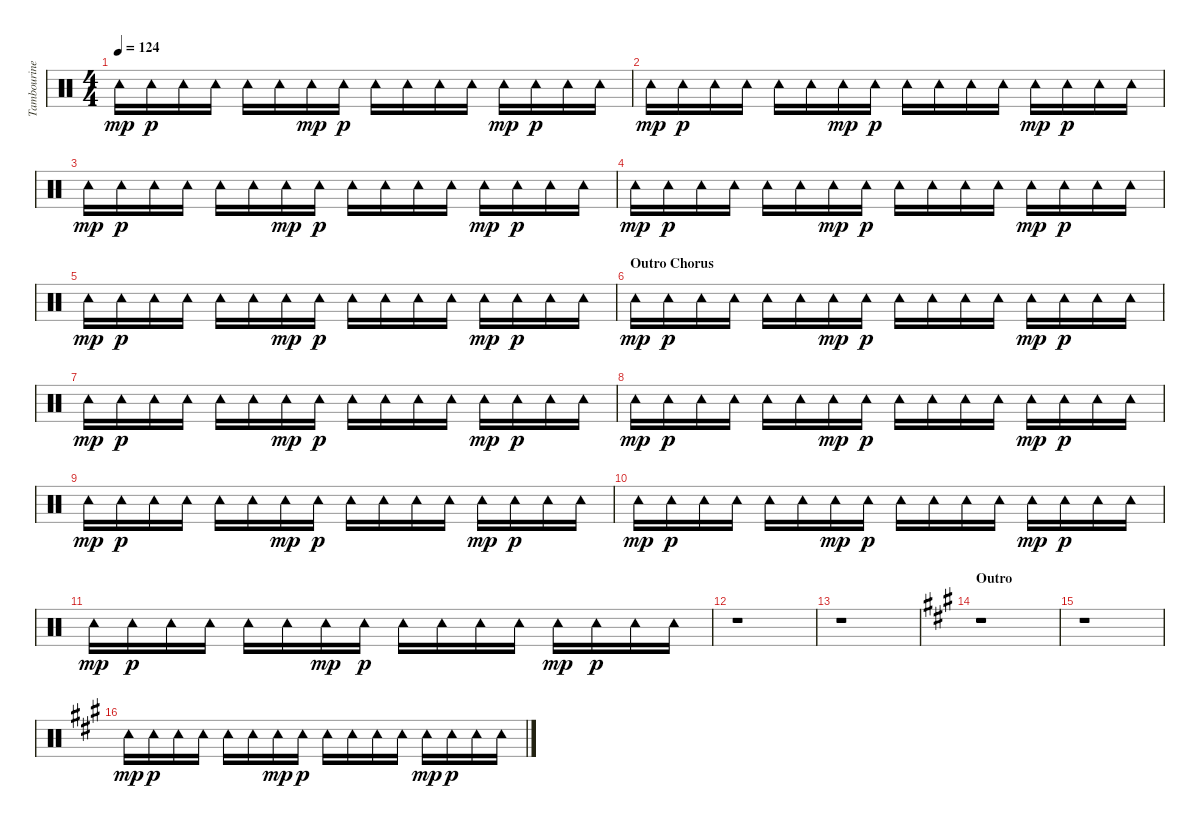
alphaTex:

\track ("Tambourine" "Tambourine") {instrument percussion}
\staff {score}
\articulation defaults
\ts (4 4)
\tempo 124
\clef neutral
\ks c "Tambourine (hit)".16{dy mp} "Tambourine (hit)".16{dy p} "Tambourine (hit)".16 "Tambourine (hit)".16 "Tambourine (hit)".16 "Tambourine (hit)".16 "Tambourine (hit)".16{dy mp} "Tambourine (hit)".16{dy p} "Tambourine (hit)".16 "Tambourine (hit)".16 "Tambourine (hit)".16 "Tambourine (hit)".16 "Tambourine (hit)".16{dy mp} "Tambourine (hit)".16{dy p} "Tambourine (hit)".16 "Tambourine (hit)".16
|
"Tambourine (hit)".16{dy mp} "Tambourine (hit)".16{dy p} "Tambourine (hit)".16 "Tambourine (hit)".16 "Tambourine (hit)".16 "Tambourine (hit)".16 "Tambourine (hit)".16{dy mp} "Tambourine (hit)".16{dy p} "Tambourine (hit)".16 "Tambourine (hit)".16 "Tambourine (hit)".16 "Tambourine (hit)".16 "Tambourine (hit)".16{dy mp} "Tambourine (hit)".16{dy p} "Tambourine (hit)".16 "Tambourine (hit)".16 |
"Tambourine (hit)".16{dy mp} "Tambourine (hit)".16{dy p} "Tambourine (hit)".16 "Tambourine (hit)".16 "Tambourine (hit)".16 "Tambourine (hit)".16 "Tambourine (hit)".16{dy mp} "Tambourine (hit)".16{dy p} "Tambourine (hit)".16 "Tambourine (hit)".16 "Tambourine (hit)".16 "Tambourine (hit)".16 "Tambourine (hit)".16{dy mp} "Tambourine (hit)".16{dy p} "Tambourine (hit)".16 "Tambourine (hit)".16 |
\ks aminor "Tambourine (hit)".16{dy mp} "Tambourine (hit)".16{dy p} "Tambourine (hit)".16 "Tambourine (hit)".16 "Tambourine (hit)".16 "Tambourine (hit)".16 "Tambourine (hit)".16{dy mp} "Tambourine (hit)".16{dy p} "Tambourine (hit)".16 "Tambourine (hit)".16 "Tambourine (hit)".16 "Tambourine (hit)".16 "Tambourine (hit)".16{dy mp} "Tambourine (hit)".16{dy p} "Tambourine (hit)".16 "Tambourine (hit)".16
|
\ks c "Tambourine (hit)".16{dy mp} "Tambourine (hit)".16{dy p} "Tambourine (hit)".16 "Tambourine (hit)".16 "Tambourine (hit)".16 "Tambourine (hit)".16 "Tambourine (hit)".16{dy mp} "Tambourine (hit)".16{dy p} "Tambourine (hit)".16 "Tambourine (hit)".16 "Tambourine (hit)".16 "Tambourine (hit)".16 "Tambourine (hit)".16{dy mp} "Tambourine (hit)".16{dy p} "Tambourine (hit)".16 "Tambourine (hit)".16
|
\section ("" "Outro Chorus")
"Tambourine (hit)".16{dy mp} "Tambourine (hit)".16{dy p} "Tambourine (hit)".16 "Tambourine (hit)".16 "Tambourine (hit)".16 "Tambourine (hit)".16 "Tambourine (hit)".16{dy mp} "Tambourine (hit)".16{dy p} "Tambourine (hit)".16 "Tambourine (hit)".16 "Tambourine (hit)".16 "Tambourine (hit)".16 "Tambourine (hit)".16{dy mp} "Tambourine (hit)".16{dy p} "Tambourine (hit)".16 "Tambourine (hit)".16 |
"Tambourine (hit)".16{dy mp} "Tambourine (hit)".16{dy p} "Tambourine (hit)".16 "Tambourine (hit)".16 "Tambourine (hit)".16 "Tambourine (hit)".16 "Tambourine (hit)".16{dy mp} "Tambourine (hit)".16{dy p} "Tambourine (hit)".16 "Tambourine (hit)".16 "Tambourine (hit)".16 "Tambourine (hit)".16 "Tambourine (hit)".16{dy mp} "Tambourine (hit)".16{dy p} "Tambourine (hit)".16 "Tambourine (hit)".16 |
"Tambourine (hit)".16{dy mp} "Tambourine (hit)".16{dy p} "Tambourine (hit)".16 "Tambourine (hit)".16 "Tambourine (hit)".16 "Tambourine (hit)".16 "Tambourine (hit)".16{dy mp} "Tambourine (hit)".16{dy p} "Tambourine (hit)".16 "Tambourine (hit)".16 "Tambourine (hit)".16 "Tambourine (hit)".16 "Tambourine (hit)".16{dy mp} "Tambourine (hit)".16{dy p} "Tambourine (hit)".16 "Tambourine (hit)".16 |
"Tambourine (hit)".16{dy mp} "Tambourine (hit)".16{dy p} "Tambourine (hit)".16 "Tambourine (hit)".16 "Tambourine (hit)".16 "Tambourine (hit)".16 "Tambourine (hit)".16{dy mp} "Tambourine (hit)".16{dy p} "Tambourine (hit)".16 "Tambourine (hit)".16 "Tambourine (hit)".16 "Tambourine (hit)".16 "Tambourine (hit)".16{dy mp} "Tambourine (hit)".16{dy p} "Tambourine (hit)".16 "Tambourine (hit)".16 |
"Tambourine (hit)".16{dy mp} "Tambourine (hit)".16{dy p} "Tambourine (hit)".16 "Tambourine (hit)".16 "Tambourine (hit)".16 "Tambourine (hit)".16 "Tambourine (hit)".16{dy mp} "Tambourine (hit)".16{dy p} "Tambourine (hit)".16 "Tambourine (hit)".16 "Tambourine (hit)".16 "Tambourine (hit)".16 "Tambourine (hit)".16{dy mp} "Tambourine (hit)".16{dy p} "Tambourine (hit)".16 "Tambourine (hit)".16 |
"Tambourine (hit)".16{dy mp} "Tambourine (hit)".16{dy p} "Tambourine (hit)".16 "Tambourine (hit)".16 "Tambourine (hit)".16 "Tambourine (hit)".16 "Tambourine (hit)".16{dy mp} "Tambourine (hit)".16{dy p} "Tambourine (hit)".16 "Tambourine (hit)".16 "Tambourine (hit)".16 "Tambourine (hit)".16 "Tambourine (hit)".16{dy mp} "Tambourine (hit)".16{dy p} "Tambourine (hit)".16 "Tambourine (hit)".16 |
r.1 |
r.1 |
\section ("" "Outro")
\ks a
r.1 |
r.1 |
"Tambourine (hit)".16{dy mp} "Tambourine (hit)".16{dy p} "Tambourine (hit)".16 "Tambourine (hit)".16 "Tambourine (hit)".16 "Tambourine (hit)".16 "Tambourine (hit)".16{dy mp} "Tambourine (hit)".16{dy p} "Tambourine (hit)".16 "Tambourine (hit)".16 "Tambourine (hit)".16 "Tambourine (hit)".16 "Tambourine (hit)".16{dy mp} "Tambourine (hit)".16{dy p} "Tambourine (hit)".16 "Tambourine (hit)".16
